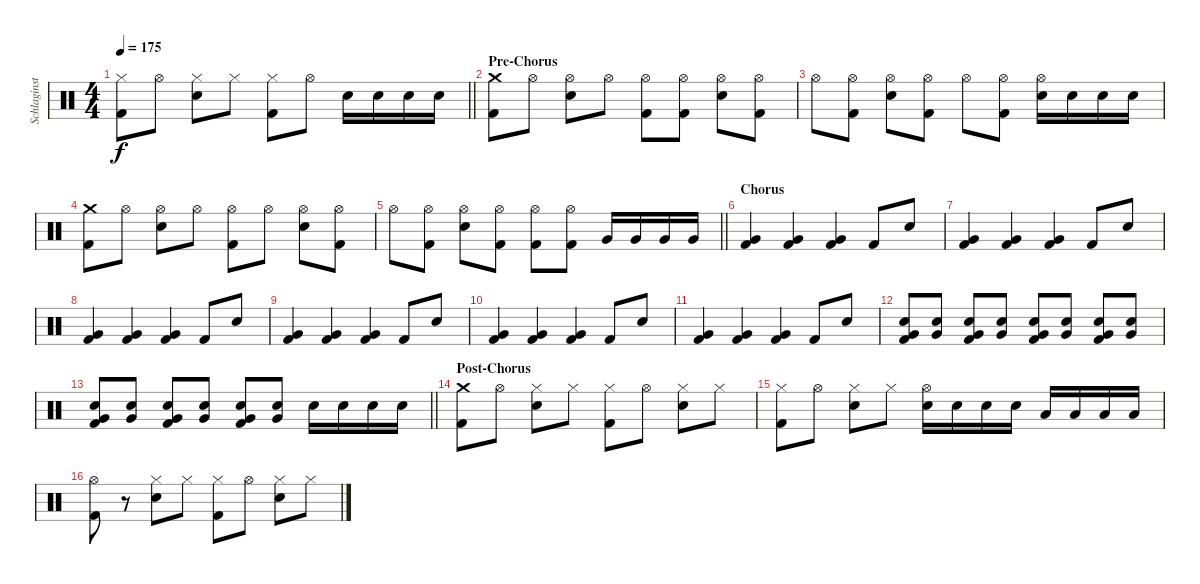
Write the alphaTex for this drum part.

\track ("Schlaginstrumente - Auswahl" "Schlaginst") {instrument percussion}
\staff {score}
\articulation defaults
\ts (4 4)
\tempo 175
\clef neutral
\barLineRight lightlight
\ks c
("Hi-Hat (closed)" "Kick (hit) 2").8{dy f} "Hi-Hat (open)".8 ("Hi-Hat (closed)" "Snare (hit) 2").8 "Hi-Hat (closed)".8 ("Hi-Hat (closed)" "Kick (hit) 2").8 "Hi-Hat (open)".8 "Snare (hit) 2".16 "Snare (hit) 2".16 "Snare (hit) 2".16 "Snare (hit) 2".16 |
\section ("" "Pre-Chorus")
("Crash medium (hit)" "Kick (hit) 2").8 "Hi-Hat (open)".8 ("Hi-Hat (open)" "Snare (hit) 2").8 "Hi-Hat (open)".8 ("Hi-Hat (open)" "Kick (hit) 2").8 ("Hi-Hat (open)" "Kick (hit) 2").8 ("Hi-Hat (open)" "Snare (hit) 2").8 ("Hi-Hat (open)" "Kick (hit) 2").8 |
"Hi-Hat (open)".8 ("Hi-Hat (open)" "Kick (hit) 2").8 ("Hi-Hat (open)" "Snare (hit) 2").8 ("Hi-Hat (open)" "Kick (hit) 2").8 "Hi-Hat (open)".8 ("Hi-Hat (open)" "Kick (hit) 2").8 ("Hi-Hat (open)" "Snare (hit) 2").16 "Snare (hit) 2".16 "Snare (hit) 2".16 "Snare (hit) 2".16 |
("Crash medium (hit)" "Kick (hit) 2").8 "Hi-Hat (open)".8 ("Hi-Hat (open)" "Snare (hit) 2").8 "Hi-Hat (open)".8 ("Hi-Hat (open)" "Kick (hit) 2").8 "Hi-Hat (open)".8 ("Hi-Hat (open)" "Snare (hit) 2").8 ("Hi-Hat (open)" "Kick (hit) 2").8 |
\barLineRight lightlight "Hi-Hat (open)".8
("Hi-Hat (open)" "Kick (hit) 2").8 ("Hi-Hat (open)" "Snare (hit) 2").8 ("Hi-Hat (open)" "Kick (hit) 2").8 ("Hi-Hat (open)" "Kick (hit) 2").8 ("Hi-Hat (open)" "Kick (hit) 2").8 "Very Low Tom (hit)".16 "Very Low Tom (hit)".16 "Very Low Tom (hit)".16 "Very Low Tom (hit)".16 |
\section ("" "Chorus")
("Very Low Tom (hit)" "Kick (hit) 2").4 ("Very Low Tom (hit)" "Kick (hit) 2").4 ("Very Low Tom (hit)" "Kick (hit) 2").4 "Kick (hit) 2".8 "Snare (hit) 2".8 |
("Very Low Tom (hit)" "Kick (hit) 2").4 ("Very Low Tom (hit)" "Kick (hit) 2").4 ("Very Low Tom (hit)" "Kick (hit) 2").4 "Kick (hit) 2".8 "Snare (hit) 2".8 |
("Very Low Tom (hit)" "Kick (hit) 2").4 ("Very Low Tom (hit)" "Kick (hit) 2").4 ("Very Low Tom (hit)" "Kick (hit) 2").4 "Kick (hit) 2".8 "Snare (hit) 2".8 |
("Very Low Tom (hit)" "Kick (hit) 2").4 ("Very Low Tom (hit)" "Kick (hit) 2").4 ("Very Low Tom (hit)" "Kick (hit) 2").4 "Kick (hit) 2".8 "Snare (hit) 2".8 |
("Very Low Tom (hit)" "Kick (hit) 2").4 ("Very Low Tom (hit)" "Kick (hit) 2").4 ("Very Low Tom (hit)" "Kick (hit) 2").4 "Kick (hit) 2".8 "Snare (hit) 2".8 |
("Very Low Tom (hit)" "Kick (hit) 2").4 ("Very Low Tom (hit)" "Kick (hit) 2").4 ("Very Low Tom (hit)" "Kick (hit) 2").4 "Kick (hit) 2".8 "Snare (hit) 2".8 |
("Very Low Tom (hit)" "Snare (hit) 2" "Kick (hit) 2").8 ("Very Low Tom (hit)" "Snare (hit) 2").8 ("Very Low Tom (hit)" "Snare (hit) 2" "Kick (hit) 2").8 ("Very Low Tom (hit)" "Snare (hit) 2").8 ("Very Low Tom (hit)" "Snare (hit) 2" "Kick (hit) 2").8 ("Very Low Tom (hit)" "Snare (hit) 2").8 ("Very Low Tom (hit)" "Snare (hit) 2" "Kick (hit) 2").8 ("Very Low Tom (hit)" "Snare (hit) 2").8 |
\barLineRight lightlight
("Very Low Tom (hit)" "Snare (hit) 2" "Kick (hit) 2").8 ("Very Low Tom (hit)" "Snare (hit) 2").8 ("Very Low Tom (hit)" "Snare (hit) 2" "Kick (hit) 2").8 ("Very Low Tom (hit)" "Snare (hit) 2").8 ("Very Low Tom (hit)" "Snare (hit) 2" "Kick (hit) 2").8 ("Very Low Tom (hit)" "Snare (hit) 2").8 "Snare (hit) 2".16 "Snare (hit) 2".16 "Snare (hit) 2".16 "Snare (hit) 2".16 |
\section ("" "Post-Chorus")
("Crash medium (hit)" "Kick (hit) 2").8 "Hi-Hat (open)".8 ("Hi-Hat (closed)" "Snare (hit) 2").8 "Hi-Hat (closed)".8 ("Hi-Hat (closed)" "Kick (hit) 2").8 "Hi-Hat (open)".8 ("Hi-Hat (closed)" "Snare (hit) 2").8 "Hi-Hat (closed)".8 |
("Hi-Hat (closed)" "Kick (hit) 2").8 "Hi-Hat (open)".8 ("Hi-Hat (closed)" "Snare (hit) 2").8 "Hi-Hat (closed)".8 ("Hi-Hat (open)" "Snare (hit) 2").16 "Snare (hit) 2".16 "Snare (hit) 2".16 "Snare (hit) 2".16 "Low Tom (hit)".16 "Low Tom (hit)".16 "Low Tom (hit)".16 "Low Tom (hit)".16 |
("Hi-Hat (open)" "Kick (hit) 2").8 r.8 ("Hi-Hat (closed)" "Snare (hit) 2").8 "Hi-Hat (closed)".8 ("Hi-Hat (closed)" "Kick (hit) 2").8 "Hi-Hat (open)".8 ("Hi-Hat (closed)" "Snare (hit) 2").8 "Hi-Hat (closed)".8
